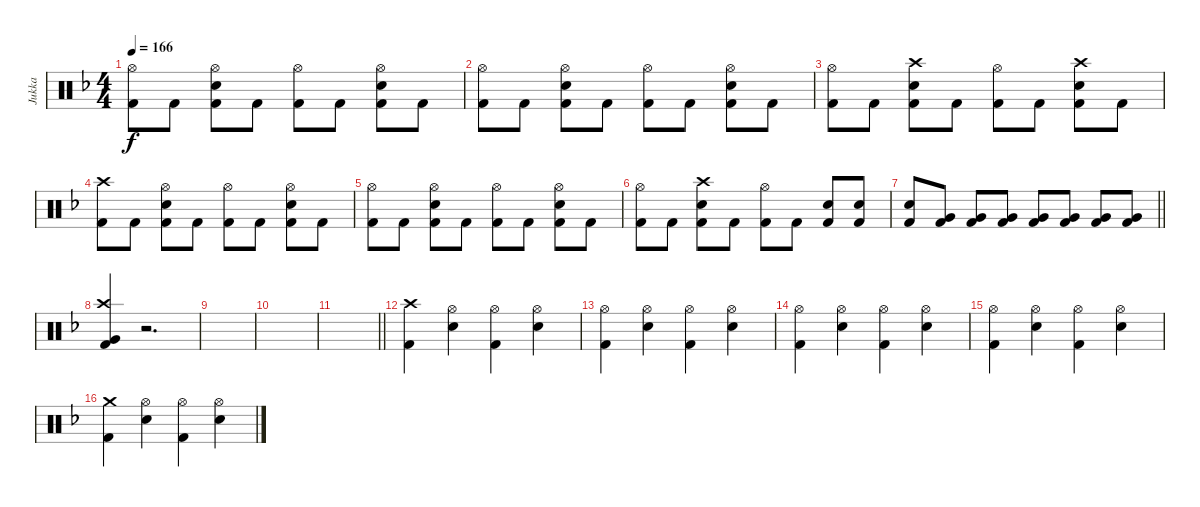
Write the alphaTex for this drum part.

\track ("Jukka" "Jukka") {instrument percussion}
\staff {score}
\articulation defaults
\ts (4 4)
\tempo 166
\clef neutral
\ks f
("Hi-Hat (open)" "Kick (hit) 2").8{dy f} "Kick (hit) 2".8 ("Hi-Hat (open)" "Kick (hit) 2" "Electric Snare (hit)").8 "Kick (hit) 2".8 ("Hi-Hat (open)" "Kick (hit) 2").8 "Kick (hit) 2".8 ("Hi-Hat (open)" "Kick (hit) 2" "Electric Snare (hit)").8 "Kick (hit) 2".8 |
("Hi-Hat (open)" "Kick (hit) 2").8 "Kick (hit) 2".8 ("Hi-Hat (open)" "Kick (hit) 2" "Electric Snare (hit)").8 "Kick (hit) 2".8 ("Hi-Hat (open)" "Kick (hit) 2").8 "Kick (hit) 2".8 ("Hi-Hat (open)" "Kick (hit) 2" "Electric Snare (hit)").8 "Kick (hit) 2".8 |
("Hi-Hat (open)" "Kick (hit) 2").8 "Kick (hit) 2".8 ("Crash high (hit)" "Kick (hit) 2" "Electric Snare (hit)").8 "Kick (hit) 2".8 ("Hi-Hat (open)" "Kick (hit) 2").8 "Kick (hit) 2".8 ("Crash high (hit)" "Kick (hit) 2" "Electric Snare (hit)").8 "Kick (hit) 2".8 |
("Crash high (hit)" "Kick (hit) 2").8 "Kick (hit) 2".8 ("Hi-Hat (open)" "Kick (hit) 2" "Electric Snare (hit)").8 "Kick (hit) 2".8 ("Hi-Hat (open)" "Kick (hit) 2").8 "Kick (hit) 2".8 ("Hi-Hat (open)" "Kick (hit) 2" "Electric Snare (hit)").8 "Kick (hit) 2".8 |
("Hi-Hat (open)" "Kick (hit) 2").8 "Kick (hit) 2".8 ("Hi-Hat (open)" "Kick (hit) 2" "Electric Snare (hit)").8 "Kick (hit) 2".8 ("Hi-Hat (open)" "Kick (hit) 2").8 "Kick (hit) 2".8 ("Hi-Hat (open)" "Kick (hit) 2" "Electric Snare (hit)").8 "Kick (hit) 2".8 |
("Hi-Hat (open)" "Kick (hit) 2").8 "Kick (hit) 2".8 ("Crash high (hit)" "Kick (hit) 2" "Electric Snare (hit)").8 "Kick (hit) 2".8 ("Hi-Hat (open)" "Kick (hit) 2").8 "Kick (hit) 2".8 ("Kick (hit) 2" "Electric Snare (hit)").8 ("Kick (hit) 2" "Electric Snare (hit)").8 |
\barLineRight lightlight
("Kick (hit) 2" "Electric Snare (hit)").8 ("Kick (hit) 2" "Very Low Tom (hit)").8 ("Kick (hit) 2" "Very Low Tom (hit)").8 ("Kick (hit) 2" "Very Low Tom (hit)").8 ("Kick (hit) 2" "Very Low Tom (hit)").8 ("Kick (hit) 2" "Very Low Tom (hit)").8 ("Kick (hit) 2" "Very Low Tom (hit)").8 ("Kick (hit) 2" "Very Low Tom (hit)").8 |
\section ("" "")
("Crash high (hit)" "Kick (hit) 2" "Very Low Tom (hit)").4 r.2{d} |
|
|
\barLineRight lightlight
|
\section ("" "")
("Crash high (hit)" "Kick (hit) 2").4 ("Hi-Hat (open)" "Electric Snare (hit)").4 ("Hi-Hat (open)" "Kick (hit) 2").4 ("Hi-Hat (open)" "Electric Snare (hit)").4 |
("Hi-Hat (open)" "Kick (hit) 2").4 ("Hi-Hat (open)" "Electric Snare (hit)").4 ("Hi-Hat (open)" "Kick (hit) 2").4 ("Hi-Hat (open)" "Electric Snare (hit)").4 |
("Hi-Hat (open)" "Kick (hit) 2").4 ("Hi-Hat (open)" "Electric Snare (hit)").4 ("Hi-Hat (open)" "Kick (hit) 2").4 ("Hi-Hat (open)" "Electric Snare (hit)").4 |
("Hi-Hat (open)" "Kick (hit) 2").4 ("Hi-Hat (open)" "Electric Snare (hit)").4 ("Hi-Hat (open)" "Kick (hit) 2").4 ("Hi-Hat (open)" "Electric Snare (hit)").4 |
("Crash medium (hit)" "Kick (hit) 2").4 ("Hi-Hat (open)" "Electric Snare (hit)").4 ("Hi-Hat (open)" "Kick (hit) 2").4 ("Hi-Hat (open)" "Electric Snare (hit)").4
